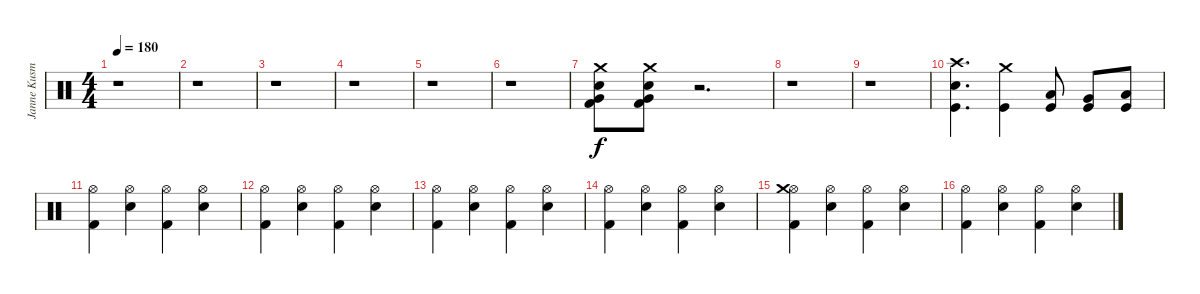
\track ("Janne Kusmin" "Janne Kusm") {instrument percussion}
\staff {score}
\articulation defaults
\ts (4 4)
\tempo 180
\clef neutral
\ks c
r.1{dy f} |
r.1 |
r.1 |
r.1 |
r.1 |
r.1 |
("Electric Snare (hit)" "Kick (hit) 2" "Very Low Tom (hit)" "Crash medium (hit)").8 ("Electric Snare (hit)" "Kick (hit) 2" "Very Low Tom (hit)" "Crash medium (hit)").8 r.2{d} |
r.1 |
r.1 |
("Kick (hit)" "Crash high (hit)" "Electric Snare (hit)").4{d} ("Kick (hit)" "Crash medium (hit)").4 ("Kick (hit)" "Low Tom (hit)").8 ("Kick (hit)" "Very Low Tom (hit)").8 ("Kick (hit)" "Low Floor Tom (hit)").8 |
("Kick (hit) 2" "Hi-Hat (open)").4 ("Electric Snare (hit)" "Hi-Hat (open)").4 ("Kick (hit) 2" "Hi-Hat (open)").4 ("Electric Snare (hit)" "Hi-Hat (open)").4 |
("Kick (hit) 2" "Hi-Hat (open)").4 ("Electric Snare (hit)" "Hi-Hat (open)").4 ("Kick (hit) 2" "Hi-Hat (open)").4 ("Electric Snare (hit)" "Hi-Hat (open)").4 |
("Kick (hit) 2" "Hi-Hat (open)").4 ("Electric Snare (hit)" "Hi-Hat (open)").4 ("Kick (hit) 2" "Hi-Hat (open)").4 ("Electric Snare (hit)" "Hi-Hat (open)").4 |
("Kick (hit) 2" "Hi-Hat (open)").4 ("Electric Snare (hit)" "Hi-Hat (open)").4 ("Kick (hit) 2" "Hi-Hat (open)").4 ("Electric Snare (hit)" "Hi-Hat (open)").4 |
("Kick (hit) 2" "Hi-Hat (open)" "Crash medium (hit)").4 ("Electric Snare (hit)" "Hi-Hat (open)").4 ("Kick (hit) 2" "Hi-Hat (open)").4 ("Electric Snare (hit)" "Hi-Hat (open)").4 |
("Kick (hit) 2" "Hi-Hat (open)").4 ("Electric Snare (hit)" "Hi-Hat (open)").4 ("Kick (hit) 2" "Hi-Hat (open)").4 ("Electric Snare (hit)" "Hi-Hat (open)").4
